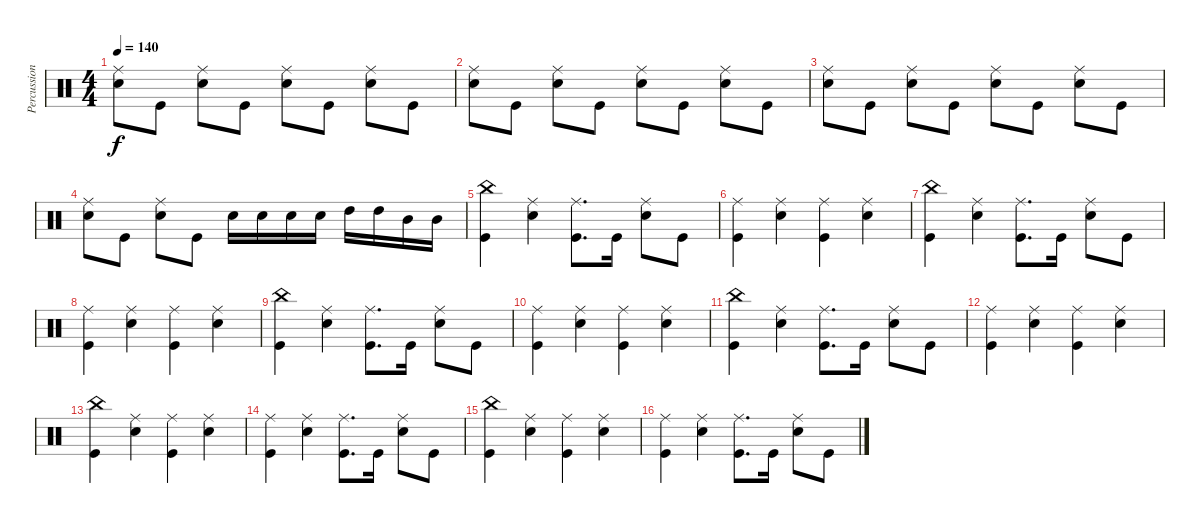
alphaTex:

\track ("Percussion" "Percussion") {instrument percussion}
\staff {score}
\articulation defaults
\ts (4 4)
\tempo 140
\clef neutral
\ks c
("Ride (middle)" "Electric Snare (hit)").8{dy f} "Kick (hit)".8 ("Ride (middle)" "Electric Snare (hit)").8 "Kick (hit)".8 ("Ride (middle)" "Electric Snare (hit)").8 "Kick (hit)".8 ("Ride (middle)" "Electric Snare (hit)").8 "Kick (hit)".8 |
("Ride (middle)" "Electric Snare (hit)").8 "Kick (hit)".8 ("Ride (middle)" "Electric Snare (hit)").8 "Kick (hit)".8 ("Ride (middle)" "Electric Snare (hit)").8 "Kick (hit)".8 ("Ride (middle)" "Electric Snare (hit)").8 "Kick (hit)".8 |
("Ride (middle)" "Electric Snare (hit)").8 "Kick (hit)".8 ("Ride (middle)" "Electric Snare (hit)").8 "Kick (hit)".8 ("Ride (middle)" "Electric Snare (hit)").8 "Kick (hit)".8 ("Ride (middle)" "Electric Snare (hit)").8 "Kick (hit)".8 |
("Ride (middle)" "Electric Snare (hit)").8 "Kick (hit)".8 ("Ride (middle)" "Electric Snare (hit)").8 "Kick (hit)".8 "Electric Snare (hit)".16 "Electric Snare (hit)".16 "Electric Snare (hit)".16 "Electric Snare (hit)".16 "High Tom (hit)".16 "High Tom (hit)".16 "Mid Tom (hit)".16 "Mid Tom (hit)".16 |
("China (hit)" "Kick (hit)").4 ("Ride (middle)" "Electric Snare (hit)").4 ("Ride (middle)" "Kick (hit)").8{d} "Kick (hit)".16 ("Ride (middle)" "Electric Snare (hit)").8 "Kick (hit)".8 |
("Ride (middle)" "Kick (hit)").4 ("Ride (middle)" "Electric Snare (hit)").4 ("Ride (middle)" "Kick (hit)").4 ("Ride (middle)" "Electric Snare (hit)").4 |
("China (hit)" "Kick (hit)").4 ("Ride (middle)" "Electric Snare (hit)").4 ("Ride (middle)" "Kick (hit)").8{d} "Kick (hit)".16 ("Ride (middle)" "Electric Snare (hit)").8 "Kick (hit)".8 |
("Ride (middle)" "Kick (hit)").4 ("Ride (middle)" "Electric Snare (hit)").4 ("Ride (middle)" "Kick (hit)").4 ("Ride (middle)" "Electric Snare (hit)").4 |
("China (hit)" "Kick (hit)").4 ("Ride (middle)" "Electric Snare (hit)").4 ("Ride (middle)" "Kick (hit)").8{d} "Kick (hit)".16 ("Ride (middle)" "Electric Snare (hit)").8 "Kick (hit)".8 |
("Ride (middle)" "Kick (hit)").4 ("Ride (middle)" "Electric Snare (hit)").4 ("Ride (middle)" "Kick (hit)").4 ("Ride (middle)" "Electric Snare (hit)").4 |
("China (hit)" "Kick (hit)").4 ("Ride (middle)" "Electric Snare (hit)").4 ("Ride (middle)" "Kick (hit)").8{d} "Kick (hit)".16 ("Ride (middle)" "Electric Snare (hit)").8 "Kick (hit)".8 |
("Ride (middle)" "Kick (hit)").4 ("Ride (middle)" "Electric Snare (hit)").4 ("Ride (middle)" "Kick (hit)").4 ("Ride (middle)" "Electric Snare (hit)").4 |
("China (hit)" "Kick (hit)").4 ("Ride (middle)" "Electric Snare (hit)").4 ("Ride (middle)" "Kick (hit)").4 ("Ride (middle)" "Electric Snare (hit)").4 |
("Ride (middle)" "Kick (hit)").4 ("Ride (middle)" "Electric Snare (hit)").4 ("Ride (middle)" "Kick (hit)").8{d} "Kick (hit)".16 ("Ride (middle)" "Electric Snare (hit)").8 "Kick (hit)".8 |
("China (hit)" "Kick (hit)").4 ("Ride (middle)" "Electric Snare (hit)").4 ("Ride (middle)" "Kick (hit)").4 ("Ride (middle)" "Electric Snare (hit)").4 |
("Ride (middle)" "Kick (hit)").4 ("Ride (middle)" "Electric Snare (hit)").4 ("Ride (middle)" "Kick (hit)").8{d} "Kick (hit)".16 ("Ride (middle)" "Electric Snare (hit)").8 "Kick (hit)".8
